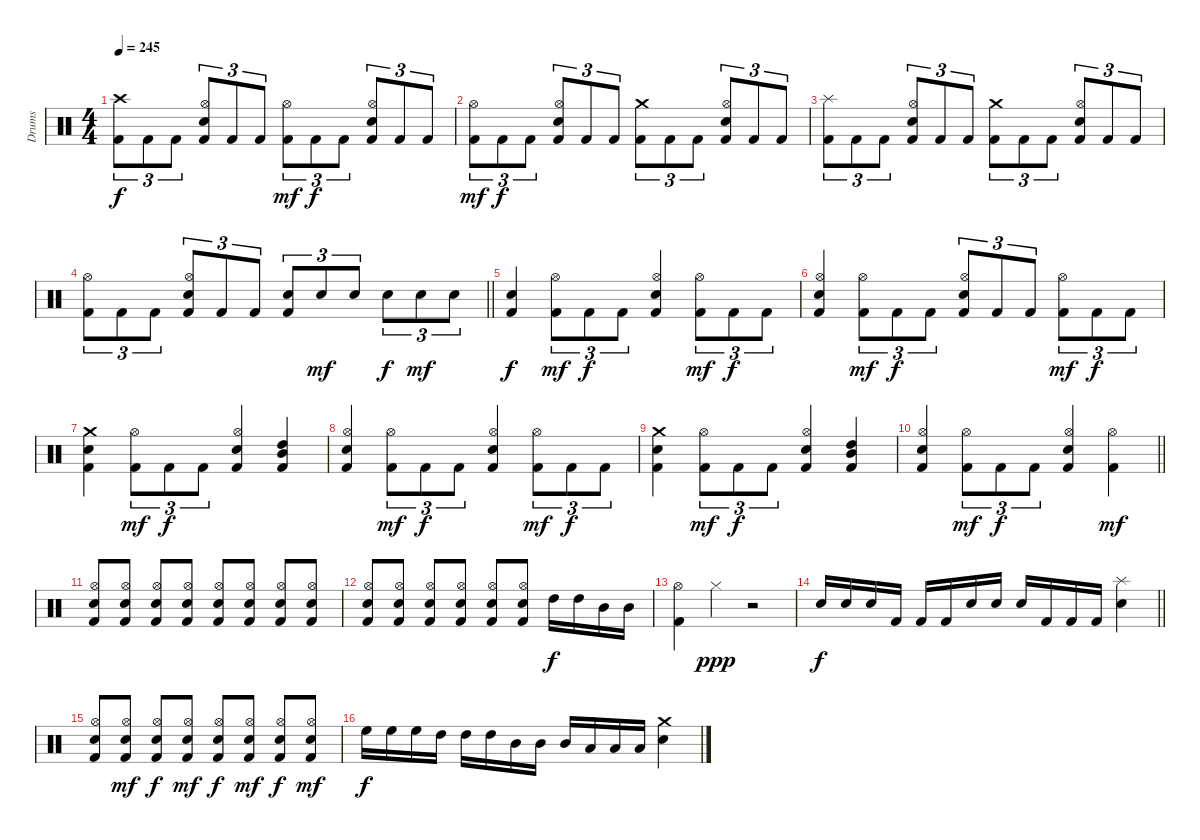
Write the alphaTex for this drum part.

\track ("Drums" "Drums") {instrument percussion}
\staff {score}
\articulation defaults
\ts (4 4)
\tempo 245
\clef neutral
\ks c
("Crash high (hit)" "Kick (hit) 2").8{tu (3 2) dy f} "Kick (hit) 2".8{tu (3 2)} "Kick (hit) 2".8{tu (3 2)} ("Hi-Hat (open)" "Electric Snare (hit)" "Kick (hit) 2").8{tu (3 2)} "Kick (hit) 2".8{tu (3 2)} "Kick (hit) 2".8{tu (3 2)} ("Hi-Hat (open)" "Kick (hit) 2").8{tu (3 2) dy mf} "Kick (hit) 2".8{tu (3 2) dy f} "Kick (hit) 2".8{tu (3 2)} ("Hi-Hat (open)" "Electric Snare (hit)" "Kick (hit) 2").8{tu (3 2)} "Kick (hit) 2".8{tu (3 2)} "Kick (hit) 2".8{tu (3 2)} |
("Hi-Hat (open)" "Kick (hit) 2").8{tu (3 2) dy mf} "Kick (hit) 2".8{tu (3 2) dy f} "Kick (hit) 2".8{tu (3 2)} ("Hi-Hat (open)" "Electric Snare (hit)" "Kick (hit) 2").8{tu (3 2)} "Kick (hit) 2".8{tu (3 2)} "Kick (hit) 2".8{tu (3 2)} ("Crash medium (hit)" "Kick (hit) 2").8{tu (3 2)} "Kick (hit) 2".8{tu (3 2)} "Kick (hit) 2".8{tu (3 2)} ("Hi-Hat (open)" "Electric Snare (hit)" "Kick (hit) 2").8{tu (3 2)} "Kick (hit) 2".8{tu (3 2)} "Kick (hit) 2".8{tu (3 2)} |
("Splash (hit)" "Kick (hit) 2").8{tu (3 2)} "Kick (hit) 2".8{tu (3 2)} "Kick (hit) 2".8{tu (3 2)} ("Hi-Hat (open)" "Electric Snare (hit)" "Kick (hit) 2").8{tu (3 2)} "Kick (hit) 2".8{tu (3 2)} "Kick (hit) 2".8{tu (3 2)} ("Crash medium (hit)" "Kick (hit) 2").8{tu (3 2)} "Kick (hit) 2".8{tu (3 2)} "Kick (hit) 2".8{tu (3 2)} ("Hi-Hat (open)" "Electric Snare (hit)" "Kick (hit) 2").8{tu (3 2)} "Kick (hit) 2".8{tu (3 2)} "Kick (hit) 2".8{tu (3 2)} |
\barLineRight lightlight
("Hi-Hat (open)" "Kick (hit) 2").8{tu (3 2)} "Kick (hit) 2".8{tu (3 2)} "Kick (hit) 2".8{tu (3 2)} ("Hi-Hat (open)" "Electric Snare (hit)" "Kick (hit) 2").8{tu (3 2)} "Kick (hit) 2".8{tu (3 2)} "Kick (hit) 2".8{tu (3 2)} ("Electric Snare (hit)" "Kick (hit) 2").8{tu (3 2)} "Electric Snare (hit)".8{tu (3 2) dy mf} "Electric Snare (hit)".8{tu (3 2)} "Electric Snare (hit)".8{tu (3 2) dy f} "Electric Snare (hit)".8{tu (3 2) dy mf} "Electric Snare (hit)".8{tu (3 2)} |
("Electric Snare (hit)" "Kick (hit) 2").4{dy f} ("Hi-Hat (open)" "Kick (hit) 2").8{tu (3 2) dy mf} "Kick (hit) 2".8{tu (3 2) dy f} "Kick (hit) 2".8{tu (3 2)} ("Hi-Hat (open)" "Electric Snare (hit)" "Kick (hit) 2").4 ("Hi-Hat (open)" "Kick (hit) 2").8{tu (3 2) dy mf} "Kick (hit) 2".8{tu (3 2) dy f} "Kick (hit) 2".8{tu (3 2)} |
("Hi-Hat (open)" "Electric Snare (hit)" "Kick (hit) 2").4 ("Hi-Hat (open)" "Kick (hit) 2").8{tu (3 2) dy mf} "Kick (hit) 2".8{tu (3 2) dy f} "Kick (hit) 2".8{tu (3 2)} ("Hi-Hat (open)" "Electric Snare (hit)" "Kick (hit) 2").8{tu (3 2)} "Kick (hit) 2".8{tu (3 2)} "Kick (hit) 2".8{tu (3 2)} ("Hi-Hat (open)" "Kick (hit) 2").8{tu (3 2) dy mf} "Kick (hit) 2".8{tu (3 2) dy f} "Kick (hit) 2".8{tu (3 2)} |
("Crash medium (hit)" "Electric Snare (hit)" "Kick (hit) 2").4 ("Hi-Hat (open)" "Kick (hit) 2").8{tu (3 2) dy mf} "Kick (hit) 2".8{tu (3 2) dy f} "Kick (hit) 2".8{tu (3 2)} ("Hi-Hat (open)" "Electric Snare (hit)" "Kick (hit) 2").4 ("High Tom (hit)" "Mid Tom (hit)" "Kick (hit) 2").4 |
("Hi-Hat (open)" "Electric Snare (hit)" "Kick (hit) 2").4 ("Hi-Hat (open)" "Kick (hit) 2").8{tu (3 2) dy mf} "Kick (hit) 2".8{tu (3 2) dy f} "Kick (hit) 2".8{tu (3 2)} ("Hi-Hat (open)" "Electric Snare (hit)" "Kick (hit) 2").4 ("Hi-Hat (open)" "Kick (hit) 2").8{tu (3 2) dy mf} "Kick (hit) 2".8{tu (3 2) dy f} "Kick (hit) 2".8{tu (3 2)} |
("Crash medium (hit)" "Electric Snare (hit)" "Kick (hit) 2").4 ("Hi-Hat (open)" "Kick (hit) 2").8{tu (3 2) dy mf} "Kick (hit) 2".8{tu (3 2) dy f} "Kick (hit) 2".8{tu (3 2)} ("Hi-Hat (open)" "Electric Snare (hit)" "Kick (hit) 2").4 ("High Tom (hit)" "Mid Tom (hit)" "Kick (hit) 2").4 |
\barLineRight lightlight
("Hi-Hat (open)" "Electric Snare (hit)" "Kick (hit) 2").4 ("Hi-Hat (open)" "Kick (hit) 2").8{tu (3 2) dy mf} "Kick (hit) 2".8{tu (3 2) dy f} "Kick (hit) 2".8{tu (3 2)} ("Hi-Hat (open)" "Electric Snare (hit)" "Kick (hit) 2").4 ("Hi-Hat (open)" "Kick (hit) 2").4{dy mf} |
("Hi-Hat (open)" "Electric Snare (hit)" "Kick (hit) 2").8 ("Hi-Hat (open)" "Electric Snare (hit)" "Kick (hit) 2").8 ("Hi-Hat (open)" "Electric Snare (hit)" "Kick (hit) 2").8 ("Hi-Hat (open)" "Electric Snare (hit)" "Kick (hit) 2").8 ("Hi-Hat (open)" "Electric Snare (hit)" "Kick (hit) 2").8 ("Hi-Hat (open)" "Electric Snare (hit)" "Kick (hit) 2").8 ("Hi-Hat (open)" "Electric Snare (hit)" "Kick (hit) 2").8 ("Hi-Hat (open)" "Electric Snare (hit)" "Kick (hit) 2").8 |
("Hi-Hat (open)" "Electric Snare (hit)" "Kick (hit) 2").8 ("Hi-Hat (open)" "Electric Snare (hit)" "Kick (hit) 2").8 ("Hi-Hat (open)" "Electric Snare (hit)" "Kick (hit) 2").8 ("Hi-Hat (open)" "Electric Snare (hit)" "Kick (hit) 2").8 ("Hi-Hat (open)" "Electric Snare (hit)" "Kick (hit) 2").8 ("Hi-Hat (open)" "Electric Snare (hit)" "Kick (hit) 2").8 "High Tom (hit)".16{dy f} "High Tom (hit)".16 "Mid Tom (hit)".16 "Mid Tom (hit)".16 |
("Hi-Hat (open)" "Kick (hit) 2").4 "Hi-Hat (closed)".4{dy ppp} r.2 |
\barLineRight lightlight "Electric Snare (hit)".16{dy f} "Electric Snare (hit)".16 "Electric Snare (hit)".16 "Kick (hit) 2".16 "Kick (hit) 2".16 "Kick (hit) 2".16 "Electric Snare (hit)".16 "Electric Snare (hit)".16 "Electric Snare (hit)".16 "Kick (hit) 2".16 "Kick (hit) 2".16 "Kick (hit) 2".16
("Splash (hit)" "Electric Snare (hit)").4 |
("Hi-Hat (open)" "Electric Snare (hit)" "Kick (hit) 2").8 ("Hi-Hat (open)" "Electric Snare (hit)" "Kick (hit) 2").8{dy mf} ("Hi-Hat (open)" "Electric Snare (hit)" "Kick (hit) 2").8{dy f} ("Hi-Hat (open)" "Electric Snare (hit)" "Kick (hit) 2").8{dy mf} ("Hi-Hat (open)" "Electric Snare (hit)" "Kick (hit) 2").8{dy f} ("Hi-Hat (open)" "Electric Snare (hit)" "Kick (hit) 2").8{dy mf} ("Hi-Hat (open)" "Electric Snare (hit)" "Kick (hit) 2").8{dy f} ("Hi-Hat (open)" "Electric Snare (hit)" "Kick (hit) 2").8{dy mf} |
"High Floor Tom (hit)".16{dy f} "High Floor Tom (hit)".16 "High Floor Tom (hit)".16 "High Tom (hit)".16 "High Tom (hit)".16 "High Tom (hit)".16 "Mid Tom (hit)".16 "Mid Tom (hit)".16 "Mid Tom (hit)".16 "Low Tom (hit)".16 "Low Tom (hit)".16 "Low Tom (hit)".16 ("Crash medium (hit)" "Electric Snare (hit)").4
